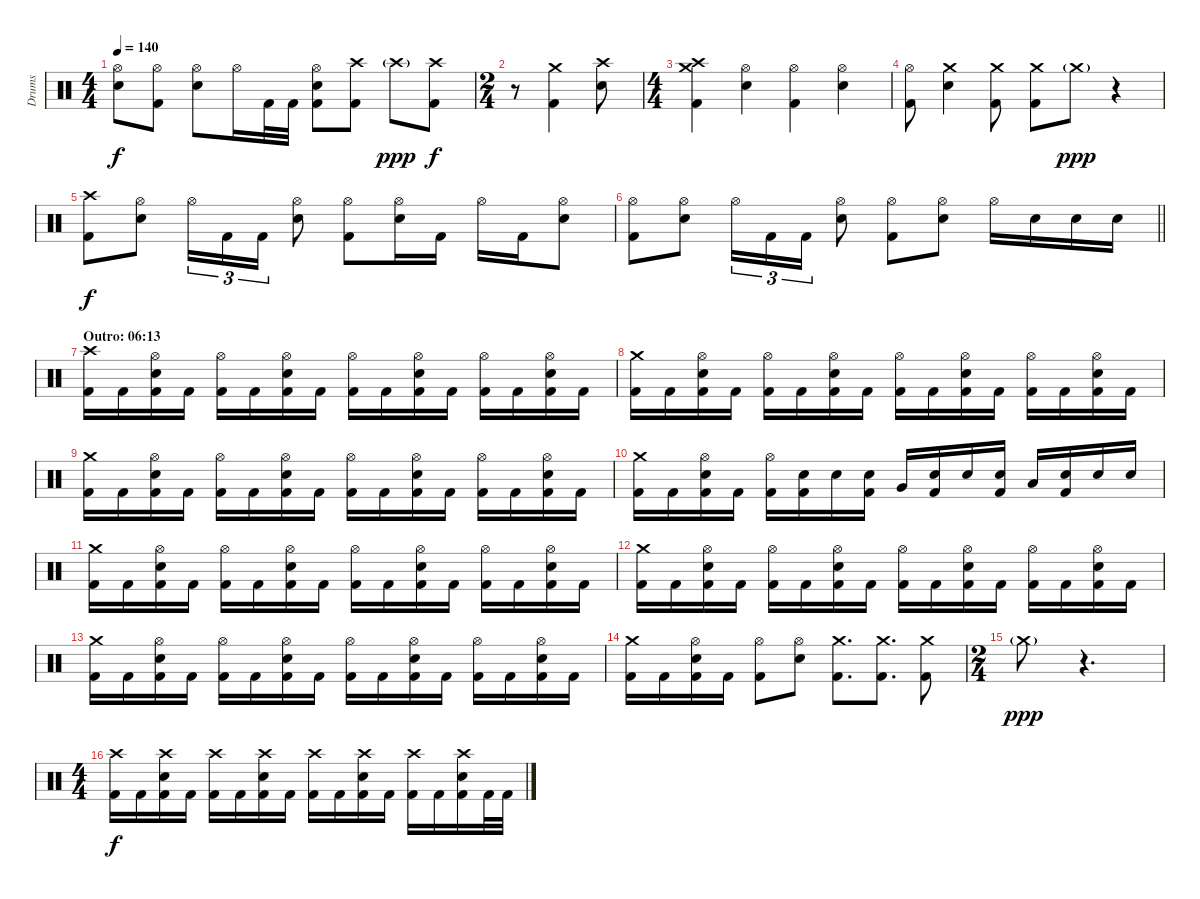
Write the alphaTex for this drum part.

\track ("Drums" "Drums") {instrument percussion}
\staff {score}
\articulation defaults
\ts (4 4)
\tempo 140
\clef neutral
\ks c
("Hi-Hat (open)" "Electric Snare (hit)").8{dy f} ("Hi-Hat (open)" "Kick (hit) 2").8 ("Hi-Hat (open)" "Electric Snare (hit)").8 "Hi-Hat (open)".16 "Kick (hit) 2".32 "Kick (hit) 2".32 ("Hi-Hat (open)" "Electric Snare (hit)" "Kick (hit) 2").8 ("Crash high (hit)" "Kick (hit) 2").8 "Crash high (hit)"{g}.8{dy ppp} ("Crash high (hit)" "Kick (hit) 2").8{dy f} |
\ts (2 4)
r.8 ("Crash medium (hit)" "Kick (hit) 2").4 ("Crash high (hit)" "Electric Snare (hit)").8 |
\ts (4 4)
("Crash high (hit)" "Crash medium (hit)" "Kick (hit) 2").4 ("Hi-Hat (open)" "Electric Snare (hit)").4 ("Hi-Hat (open)" "Kick (hit) 2").4 ("Hi-Hat (open)" "Electric Snare (hit)").4 |
("Hi-Hat (open)" "Kick (hit) 2").8 ("Crash medium (hit)" "Electric Snare (hit)").4 ("Crash medium (hit)" "Kick (hit) 2").8 ("Crash medium (hit)" "Kick (hit) 2").8 "Crash medium (hit)"{g}.8{dy ppp} r.4 |
("Crash high (hit)" "Kick (hit) 2").8{dy f} ("Hi-Hat (open)" "Electric Snare (hit)").8 "Hi-Hat (open)".16{tu (3 2)} "Kick (hit) 2".16{tu (3 2)} "Kick (hit) 2".16{tu (3 2)} ("Hi-Hat (open)" "Electric Snare (hit)").8 ("Hi-Hat (open)" "Kick (hit) 2").8 ("Hi-Hat (open)" "Electric Snare (hit)").16 "Kick (hit) 2".16 "Hi-Hat (open)".16 "Kick (hit) 2".16 ("Hi-Hat (open)" "Electric Snare (hit)").8 |
\barLineRight lightlight
("Hi-Hat (open)" "Kick (hit) 2").8 ("Hi-Hat (open)" "Electric Snare (hit)").8 "Hi-Hat (open)".16{tu (3 2)} "Kick (hit) 2".16{tu (3 2)} "Kick (hit) 2".16{tu (3 2)} ("Hi-Hat (open)" "Electric Snare (hit)").8 ("Hi-Hat (open)" "Kick (hit) 2").8 ("Hi-Hat (open)" "Electric Snare (hit)").8 "Hi-Hat (open)".16 "Electric Snare (hit)".16 "Electric Snare (hit)".16 "Electric Snare (hit)".16 |
\section ("" "Outro: 06:13")
("Crash high (hit)" "Kick (hit) 2").16 "Kick (hit) 2".16 ("Hi-Hat (open)" "Electric Snare (hit)" "Kick (hit) 2").16 "Kick (hit) 2".16 ("Hi-Hat (open)" "Kick (hit) 2").16 "Kick (hit) 2".16 ("Hi-Hat (open)" "Electric Snare (hit)" "Kick (hit) 2").16 "Kick (hit) 2".16 ("Hi-Hat (open)" "Kick (hit) 2").16 "Kick (hit) 2".16 ("Hi-Hat (open)" "Electric Snare (hit)" "Kick (hit) 2").16 "Kick (hit) 2".16 ("Hi-Hat (open)" "Kick (hit) 2").16 "Kick (hit) 2".16 ("Hi-Hat (open)" "Electric Snare (hit)" "Kick (hit) 2").16 "Kick (hit) 2".16 |
("Crash medium (hit)" "Kick (hit) 2").16 "Kick (hit) 2".16 ("Hi-Hat (open)" "Electric Snare (hit)" "Kick (hit) 2").16 "Kick (hit) 2".16 ("Hi-Hat (open)" "Kick (hit) 2").16 "Kick (hit) 2".16 ("Hi-Hat (open)" "Electric Snare (hit)" "Kick (hit) 2").16 "Kick (hit) 2".16 ("Hi-Hat (open)" "Kick (hit) 2").16 "Kick (hit) 2".16 ("Hi-Hat (open)" "Electric Snare (hit)" "Kick (hit) 2").16 "Kick (hit) 2".16 ("Hi-Hat (open)" "Kick (hit) 2").16 "Kick (hit) 2".16 ("Hi-Hat (open)" "Electric Snare (hit)" "Kick (hit) 2").16 "Kick (hit) 2".16 |
("Crash medium (hit)" "Kick (hit) 2").16 "Kick (hit) 2".16 ("Hi-Hat (open)" "Electric Snare (hit)" "Kick (hit) 2").16 "Kick (hit) 2".16 ("Hi-Hat (open)" "Kick (hit) 2").16 "Kick (hit) 2".16 ("Hi-Hat (open)" "Electric Snare (hit)" "Kick (hit) 2").16 "Kick (hit) 2".16 ("Hi-Hat (open)" "Kick (hit) 2").16 "Kick (hit) 2".16 ("Hi-Hat (open)" "Electric Snare (hit)" "Kick (hit) 2").16 "Kick (hit) 2".16 ("Hi-Hat (open)" "Kick (hit) 2").16 "Kick (hit) 2".16 ("Hi-Hat (open)" "Electric Snare (hit)" "Kick (hit) 2").16 "Kick (hit) 2".16 |
("Crash medium (hit)" "Kick (hit) 2").16 "Kick (hit) 2".16 ("Hi-Hat (open)" "Electric Snare (hit)" "Kick (hit) 2").16 "Kick (hit) 2".16 ("Hi-Hat (open)" "Kick (hit) 2").16 ("Electric Snare (hit)" "Kick (hit) 2").16 "Electric Snare (hit)".16 ("Electric Snare (hit)" "Kick (hit) 2").16 "Very Low Tom (hit)".16 ("Electric Snare (hit)" "Kick (hit) 2").16 "Electric Snare (hit)".16 ("Electric Snare (hit)" "Kick (hit) 2").16 "Low Tom (hit)".16 ("Electric Snare (hit)" "Kick (hit) 2").16 "Electric Snare (hit)".16 "Electric Snare (hit)".16 |
("Crash medium (hit)" "Kick (hit) 2").16 "Kick (hit) 2".16 ("Hi-Hat (open)" "Electric Snare (hit)" "Kick (hit) 2").16 "Kick (hit) 2".16 ("Hi-Hat (open)" "Kick (hit) 2").16 "Kick (hit) 2".16 ("Hi-Hat (open)" "Electric Snare (hit)" "Kick (hit) 2").16 "Kick (hit) 2".16 ("Hi-Hat (open)" "Kick (hit) 2").16 "Kick (hit) 2".16 ("Hi-Hat (open)" "Electric Snare (hit)" "Kick (hit) 2").16 "Kick (hit) 2".16 ("Hi-Hat (open)" "Kick (hit) 2").16 "Kick (hit) 2".16 ("Hi-Hat (open)" "Electric Snare (hit)" "Kick (hit) 2").16 "Kick (hit) 2".16 |
("Crash medium (hit)" "Kick (hit) 2").16 "Kick (hit) 2".16 ("Hi-Hat (open)" "Electric Snare (hit)" "Kick (hit) 2").16 "Kick (hit) 2".16 ("Hi-Hat (open)" "Kick (hit) 2").16 "Kick (hit) 2".16 ("Hi-Hat (open)" "Electric Snare (hit)" "Kick (hit) 2").16 "Kick (hit) 2".16 ("Hi-Hat (open)" "Kick (hit) 2").16 "Kick (hit) 2".16 ("Hi-Hat (open)" "Electric Snare (hit)" "Kick (hit) 2").16 "Kick (hit) 2".16 ("Hi-Hat (open)" "Kick (hit) 2").16 "Kick (hit) 2".16 ("Hi-Hat (open)" "Electric Snare (hit)" "Kick (hit) 2").16 "Kick (hit) 2".16 |
("Crash medium (hit)" "Kick (hit) 2").16 "Kick (hit) 2".16 ("Hi-Hat (open)" "Electric Snare (hit)" "Kick (hit) 2").16 "Kick (hit) 2".16 ("Hi-Hat (open)" "Kick (hit) 2").16 "Kick (hit) 2".16 ("Hi-Hat (open)" "Electric Snare (hit)" "Kick (hit) 2").16 "Kick (hit) 2".16 ("Hi-Hat (open)" "Kick (hit) 2").16 "Kick (hit) 2".16 ("Hi-Hat (open)" "Electric Snare (hit)" "Kick (hit) 2").16 "Kick (hit) 2".16 ("Hi-Hat (open)" "Kick (hit) 2").16 "Kick (hit) 2".16 ("Hi-Hat (open)" "Electric Snare (hit)" "Kick (hit) 2").16 "Kick (hit) 2".16 |
("Crash medium (hit)" "Kick (hit) 2").16 "Kick (hit) 2".16 ("Hi-Hat (open)" "Electric Snare (hit)" "Kick (hit) 2").16 "Kick (hit) 2".16 ("Hi-Hat (open)" "Kick (hit) 2").8 ("Hi-Hat (open)" "Electric Snare (hit)").8 ("Crash medium (hit)" "Kick (hit) 2").8{d} ("Crash medium (hit)" "Kick (hit) 2").8{d} ("Crash medium (hit)" "Kick (hit) 2").8 |
\ts (2 4)
"Crash medium (hit)"{g}.8{dy ppp} r.4{d} |
\ts (4 4)
("Crash high (hit)" "Kick (hit) 2").16{dy f} "Kick (hit) 2".16 ("Crash high (hit)" "Electric Snare (hit)" "Kick (hit) 2").16 "Kick (hit) 2".16 ("Crash high (hit)" "Kick (hit) 2").16 "Kick (hit) 2".16 ("Crash high (hit)" "Electric Snare (hit)" "Kick (hit) 2").16 "Kick (hit) 2".16 ("Crash high (hit)" "Kick (hit) 2").16 "Kick (hit) 2".16 ("Crash high (hit)" "Electric Snare (hit)" "Kick (hit) 2").16 "Kick (hit) 2".16 ("Crash high (hit)" "Kick (hit) 2").16 "Kick (hit) 2".16 ("Crash high (hit)" "Electric Snare (hit)" "Kick (hit) 2").16 "Kick (hit) 2".32 "Kick (hit) 2".32
